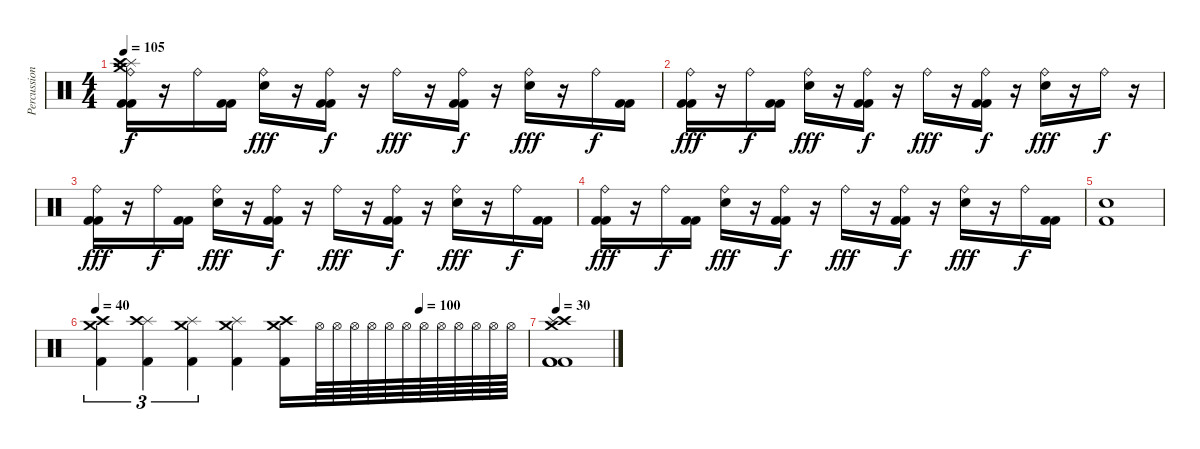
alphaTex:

\track ("Percussion" "Percussion") {instrument percussion}
\staff {score}
\articulation defaults
\ts (4 4)
\tempo 105
\clef neutral
\ks c
("Ride (bell)" "Crash medium (hit)" "Splash (hit)" "Crash high (hit)" "Kick (hit) 2" "Kick (hit) 2").16{dy f} r.16 "Ride (bell)".16 ("Kick (hit) 2" "Kick (hit) 2").16 ("Ride (bell)" "Electric Snare (hit)").16{dy fff} r.16 ("Ride (bell)" "Kick (hit) 2" "Kick (hit) 2").16{dy f} r.16 "Ride (bell)".16{dy fff} r.16 ("Ride (bell)" "Kick (hit) 2" "Kick (hit) 2").16{dy f} r.16 ("Ride (bell)" "Electric Snare (hit)").16{dy fff} r.16 "Ride (bell)".16{dy f} ("Kick (hit) 2" "Kick (hit) 2").16 |
("Ride (bell)" "Kick (hit) 2" "Kick (hit) 2").16{dy fff} r.16 "Ride (bell)".16{dy f} ("Kick (hit) 2" "Kick (hit) 2").16 ("Ride (bell)" "Electric Snare (hit)").16{dy fff} r.16 ("Ride (bell)" "Kick (hit) 2" "Kick (hit) 2").16{dy f} r.16 "Ride (bell)".16{dy fff} r.16 ("Ride (bell)" "Kick (hit) 2" "Kick (hit) 2").16{dy f} r.16 ("Ride (bell)" "Electric Snare (hit)").16{dy fff} r.16 "Ride (bell)".16{dy f} r.16 |
("Ride (bell)" "Kick (hit) 2" "Kick (hit) 2").16{dy fff} r.16 "Ride (bell)".16{dy f} ("Kick (hit) 2" "Kick (hit) 2").16 ("Ride (bell)" "Electric Snare (hit)").16{dy fff} r.16 ("Ride (bell)" "Kick (hit) 2" "Kick (hit) 2").16{dy f} r.16 "Ride (bell)".16{dy fff} r.16 ("Ride (bell)" "Kick (hit) 2" "Kick (hit) 2").16{dy f} r.16 ("Ride (bell)" "Electric Snare (hit)").16{dy fff} r.16 "Ride (bell)".16{dy f} ("Kick (hit) 2" "Kick (hit) 2").16 |
("Ride (bell)" "Kick (hit) 2" "Kick (hit) 2").16{dy fff} r.16 "Ride (bell)".16{dy f} ("Kick (hit) 2" "Kick (hit) 2").16 ("Ride (bell)" "Electric Snare (hit)").16{dy fff} r.16 ("Ride (bell)" "Kick (hit) 2" "Kick (hit) 2").16{dy f} r.16 "Ride (bell)".16{dy fff} r.16 ("Ride (bell)" "Kick (hit) 2" "Kick (hit) 2").16{dy f} r.16 ("Ride (bell)" "Electric Snare (hit)").16{dy fff} r.16 "Ride (bell)".16{dy f} ("Kick (hit) 2" "Kick (hit) 2").16 |
("Electric Snare (hit)" "Kick (hit) 2").1 |
\tempo 40
\tempo (100 0.75)
("Crash high (hit)" "Crash medium (hit)" "Kick (hit) 2").4{tu (3 2)} ("Splash (hit)" "Crash high (hit)" "Kick (hit) 2").4{tu (3 2)} ("Crash medium (hit)" "Splash (hit)" "Kick (hit) 2").4{tu (3 2)} ("Splash (hit)" "Crash medium (hit)" "Kick (hit) 2").4 ("Crash high (hit)" "Crash medium (hit)" "Kick (hit) 2").16 "Hi-Hat (open)".64 "Hi-Hat (open)".64 "Hi-Hat (open)".64 "Hi-Hat (open)".64 "Hi-Hat (open)".64 "Hi-Hat (open)".64 "Hi-Hat (open)".64 "Hi-Hat (open)".64 "Hi-Hat (open)".64 "Hi-Hat (open)".64 "Hi-Hat (open)".64 "Hi-Hat (open)".64 |
\tempo 20
\tempo 30
("Crash high (hit)" "Crash medium (hit)" "Splash (hit)" "Kick (hit) 2" "Kick (hit) 2" "Kick (hit) 2").1
